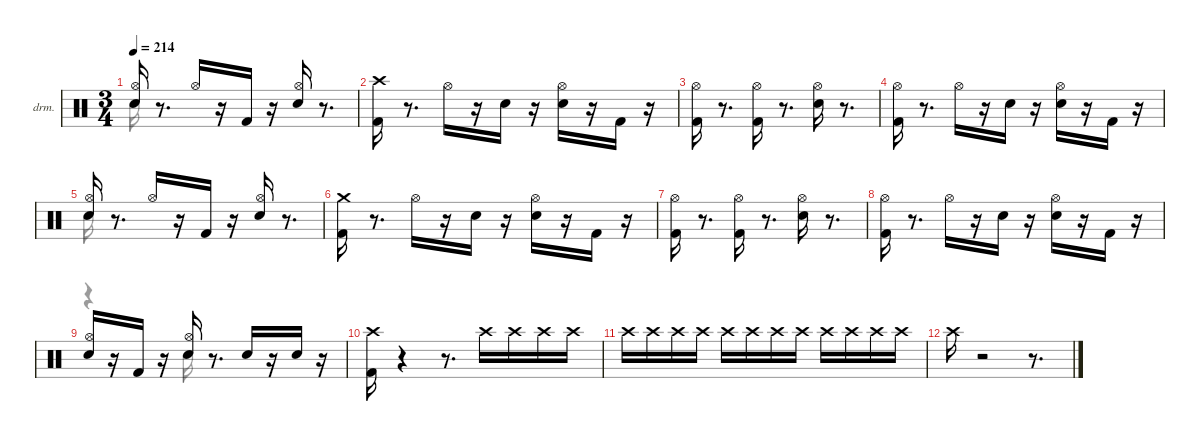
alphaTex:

\hideDynamics
\bracketExtendMode nobrackets
\firstSystemTrackNameOrientation horizontal
\track ("EZdrummer 3" "drm.") {instrument percussion}
\staff {score}
\articulation defaults
\voice
\ts (3 4)
\tempo 214
\clef neutral
\ks aminor
("Snare (hit) 2" "Hi-Hat (open)"{acc #}).16{dy pp} r.8{d} "Hi-Hat (open)"{acc #}.16{dy f} r.16 "Kick (hit) 2".16{dy mp} r.16 ("Snare (hit) 2" "Hi-Hat (open)"{acc #}).16{dy ff} r.8{d} |
("Kick (hit) 2" "Crash high (hit)"{acc #}).16{dy mf} r.8{d} "Hi-Hat (open)"{acc #}.16 r.16 "Snare (hit) 2".16{dy f} r.16 ("Snare (hit) 2" "Hi-Hat (open)"{acc #}).16{dy p} r.16 "Kick (hit) 2".16{dy mp} r.16 |
("Kick (hit) 2" "Hi-Hat (open)"{acc #}).16{dy f} r.8{d} ("Kick (hit) 2" "Hi-Hat (open)"{acc #}).16{dy mf} r.8{d} ("Snare (hit) 2" "Hi-Hat (open)"{acc #}).16{dy f} r.8{d} |
("Kick (hit) 2" "Hi-Hat (open)"{acc #}).16{dy mf} r.8{d} "Hi-Hat (open)"{acc #}.16{dy mp} r.16 "Snare (hit) 2".16{dy f} r.16 ("Snare (hit) 2" "Hi-Hat (open)"{acc #}).16 r.16 "Kick (hit) 2".16{dy mf} r.16 |
("Snare (hit) 2" "Hi-Hat (open)"{acc #}).16{dy pp} r.8{d} "Hi-Hat (open)"{acc #}.16{dy f} r.16 "Kick (hit) 2".16{dy mp} r.16 ("Snare (hit) 2" "Hi-Hat (open)"{acc #}).16{dy ff} r.8{d} |
("Kick (hit) 2" "Crash medium (hit)").16{dy mf} r.8{d} "Hi-Hat (open)"{acc #}.16 r.16 "Snare (hit) 2".16{dy f} r.16 ("Snare (hit) 2" "Hi-Hat (open)"{acc #}).16 r.16 "Kick (hit) 2".16{dy mp} r.16 |
("Kick (hit) 2" "Hi-Hat (open)"{acc #}).16{dy f} r.8{d} ("Kick (hit) 2" "Hi-Hat (open)"{acc #}).16 r.8{d} ("Snare (hit) 2" "Hi-Hat (open)"{acc #}).16{dy mp} r.8{d} |
("Kick (hit) 2" "Hi-Hat (open)"{acc #}).16{dy mf} r.8{d} "Hi-Hat (open)"{acc #}.16{dy mp} r.16 "Snare (hit) 2".16{dy f} r.16 ("Snare (hit) 2" "Hi-Hat (open)"{acc #}).16 r.16 "Kick (hit) 2".16{dy ff} r.16 |
("Snare (hit) 2" "Hi-Hat (open)"{acc #}).16 r.16 "Kick (hit) 2".16{dy mp} r.16 ("Snare (hit) 2" "Hi-Hat (open)"{acc #}).16{dy pp} r.8{d} "Snare (hit) 2".16{dy p} r.16 "Snare (hit) 2".16{dy ppp} r.16 |
("Kick (hit) 2" "Crash high (hit)"{acc #}).16{dy ff} r.4 r.8{d} "Crash high (hit)"{acc #}.16{dy ppp} "Crash high (hit)"{acc #}.16 "Crash high (hit)"{acc #}.16 "Crash high (hit)"{acc #}.16 |
"Crash high (hit)"{acc #}.16 "Crash high (hit)"{acc #}.16 "Crash high (hit)"{acc #}.16 "Crash high (hit)"{acc #}.16 "Crash high (hit)"{acc #}.16{dy pp} "Crash high (hit)"{acc #}.16 "Crash high (hit)"{acc #}.16{dy p} "Crash high (hit)"{acc #}.16{dy pp} "Crash high (hit)"{acc #}.16{dy p} "Crash high (hit)"{acc #}.16{dy pp} "Crash high (hit)"{acc #}.16{dy mp} "Crash high (hit)"{acc #}.16{dy p} |
"Crash high (hit)"{acc #}.16{dy f} r.2 r.8{d}
\voice
\clef neutral
\ottava regular
\simile none
\ks aminor "Snare (hit) 2".16{dy ff}
|
|
|
|
"Snare (hit) 2".16 |
|
|
|
r.4 "Snare (hit) 2".16{dy fff} |
|
|
